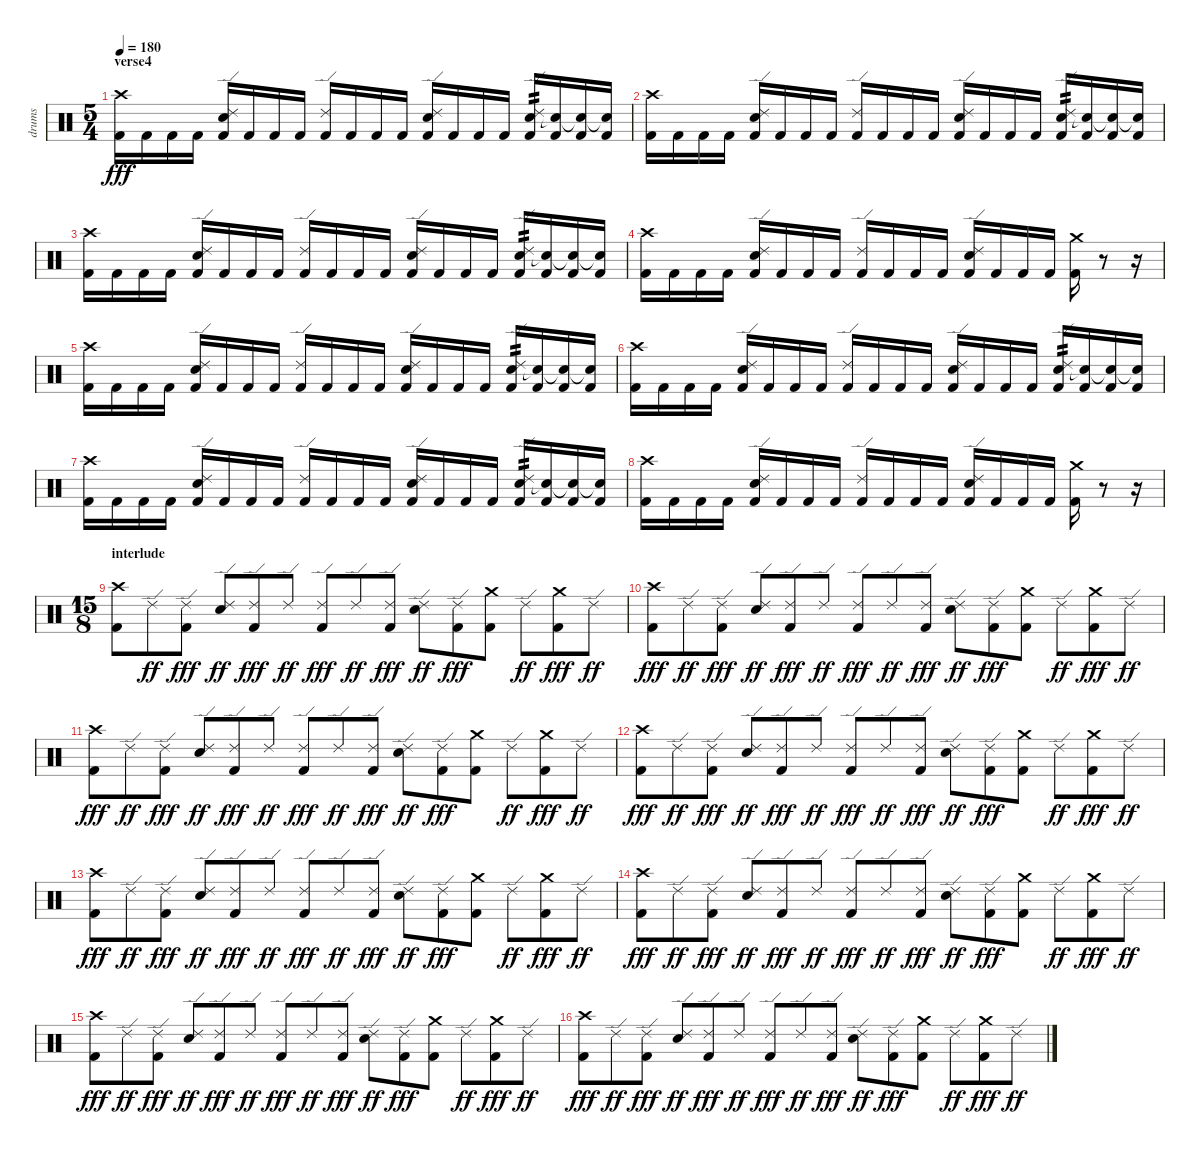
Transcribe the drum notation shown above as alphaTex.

\track ("drums" "drums") {instrument percussion}
\staff {score}
\articulation defaults
\ts (5 4)
\section ("" "verse4")
\tempo 180
\clef neutral
\ks c
("Crash high (hit)" "Kick (hit) 2").16{dy fff} "Kick (hit) 2".16 "Kick (hit) 2".16 "Kick (hit) 2".16 ("Ride (edge) 2" "Snare (hit) 2" "Kick (hit) 2").16 "Kick (hit) 2".16 "Kick (hit) 2".16 "Kick (hit) 2".16 ("Ride (edge) 2" "Kick (hit) 2").16 "Kick (hit) 2".16 "Kick (hit) 2".16 "Kick (hit) 2".16 ("Ride (edge) 2" "Snare (hit) 2" "Kick (hit) 2").16 "Kick (hit) 2".16 "Kick (hit) 2".16 "Kick (hit) 2".16 ("Ride (edge) 2" "Snare (hit) 2" "Kick (hit) 2").16{tp 2} ("Snare (hit)"{t} "Kick (hit) 2").16 ("Snare (hit)"{t} "Kick (hit) 2").16 ("Snare (hit)"{t} "Kick (hit) 2").16 |
("Crash high (hit)" "Kick (hit) 2").16 "Kick (hit) 2".16 "Kick (hit) 2".16 "Kick (hit) 2".16 ("Ride (edge) 2" "Snare (hit) 2" "Kick (hit) 2").16 "Kick (hit) 2".16 "Kick (hit) 2".16 "Kick (hit) 2".16 ("Ride (edge) 2" "Kick (hit) 2").16 "Kick (hit) 2".16 "Kick (hit) 2".16 "Kick (hit) 2".16 ("Ride (edge) 2" "Snare (hit) 2" "Kick (hit) 2").16 "Kick (hit) 2".16 "Kick (hit) 2".16 "Kick (hit) 2".16 ("Ride (edge) 2" "Snare (hit) 2" "Kick (hit) 2").16{tp 2} ("Snare (hit)"{t} "Kick (hit) 2").16 ("Snare (hit)"{t} "Kick (hit) 2").16 ("Snare (hit)"{t} "Kick (hit) 2").16 |
("Crash high (hit)" "Kick (hit) 2").16 "Kick (hit) 2".16 "Kick (hit) 2".16 "Kick (hit) 2".16 ("Ride (edge) 2" "Snare (hit) 2" "Kick (hit) 2").16 "Kick (hit) 2".16 "Kick (hit) 2".16 "Kick (hit) 2".16 ("Ride (edge) 2" "Kick (hit) 2").16 "Kick (hit) 2".16 "Kick (hit) 2".16 "Kick (hit) 2".16 ("Ride (edge) 2" "Snare (hit) 2" "Kick (hit) 2").16 "Kick (hit) 2".16 "Kick (hit) 2".16 "Kick (hit) 2".16 ("Ride (edge) 2" "Snare (hit) 2" "Kick (hit) 2").16{tp 2} ("Snare (hit)"{t} "Kick (hit) 2").16 ("Snare (hit)"{t} "Kick (hit) 2").16 ("Snare (hit)"{t} "Kick (hit) 2").16 |
("Crash high (hit)" "Kick (hit) 2").16 "Kick (hit) 2".16 "Kick (hit) 2".16 "Kick (hit) 2".16 ("Ride (edge) 2" "Snare (hit) 2" "Kick (hit) 2").16 "Kick (hit) 2".16 "Kick (hit) 2".16 "Kick (hit) 2".16 ("Ride (edge) 2" "Kick (hit) 2").16 "Kick (hit) 2".16 "Kick (hit) 2".16 "Kick (hit) 2".16 ("Ride (edge) 2" "Snare (hit) 2" "Kick (hit) 2").16 "Kick (hit) 2".16 "Kick (hit) 2".16 "Kick (hit) 2".16 ("Crash medium (hit)" "Kick (hit) 2").16 r.8 r.16 |
("Crash high (hit)" "Kick (hit) 2").16 "Kick (hit) 2".16 "Kick (hit) 2".16 "Kick (hit) 2".16 ("Ride (edge) 2" "Snare (hit) 2" "Kick (hit) 2").16 "Kick (hit) 2".16 "Kick (hit) 2".16 "Kick (hit) 2".16 ("Ride (edge) 2" "Kick (hit) 2").16 "Kick (hit) 2".16 "Kick (hit) 2".16 "Kick (hit) 2".16 ("Ride (edge) 2" "Snare (hit) 2" "Kick (hit) 2").16 "Kick (hit) 2".16 "Kick (hit) 2".16 "Kick (hit) 2".16 ("Ride (edge) 2" "Snare (hit) 2" "Kick (hit) 2").16{tp 2} ("Snare (hit)"{t} "Kick (hit) 2").16 ("Snare (hit)"{t} "Kick (hit) 2").16 ("Snare (hit)"{t} "Kick (hit) 2").16 |
("Crash high (hit)" "Kick (hit) 2").16 "Kick (hit) 2".16 "Kick (hit) 2".16 "Kick (hit) 2".16 ("Ride (edge) 2" "Snare (hit) 2" "Kick (hit) 2").16 "Kick (hit) 2".16 "Kick (hit) 2".16 "Kick (hit) 2".16 ("Ride (edge) 2" "Kick (hit) 2").16 "Kick (hit) 2".16 "Kick (hit) 2".16 "Kick (hit) 2".16 ("Ride (edge) 2" "Snare (hit) 2" "Kick (hit) 2").16 "Kick (hit) 2".16 "Kick (hit) 2".16 "Kick (hit) 2".16 ("Ride (edge) 2" "Snare (hit) 2" "Kick (hit) 2").16{tp 2} ("Snare (hit)"{t} "Kick (hit) 2").16 ("Snare (hit)"{t} "Kick (hit) 2").16 ("Snare (hit)"{t} "Kick (hit) 2").16 |
("Crash high (hit)" "Kick (hit) 2").16 "Kick (hit) 2".16 "Kick (hit) 2".16 "Kick (hit) 2".16 ("Ride (edge) 2" "Snare (hit) 2" "Kick (hit) 2").16 "Kick (hit) 2".16 "Kick (hit) 2".16 "Kick (hit) 2".16 ("Ride (edge) 2" "Kick (hit) 2").16 "Kick (hit) 2".16 "Kick (hit) 2".16 "Kick (hit) 2".16 ("Ride (edge) 2" "Snare (hit) 2" "Kick (hit) 2").16 "Kick (hit) 2".16 "Kick (hit) 2".16 "Kick (hit) 2".16 ("Ride (edge) 2" "Snare (hit) 2" "Kick (hit) 2").16{tp 2} ("Snare (hit)"{t} "Kick (hit) 2").16 ("Snare (hit)"{t} "Kick (hit) 2").16 ("Snare (hit)"{t} "Kick (hit) 2").16 |
("Crash high (hit)" "Kick (hit) 2").16 "Kick (hit) 2".16 "Kick (hit) 2".16 "Kick (hit) 2".16 ("Ride (edge) 2" "Snare (hit) 2" "Kick (hit) 2").16 "Kick (hit) 2".16 "Kick (hit) 2".16 "Kick (hit) 2".16 ("Ride (edge) 2" "Kick (hit) 2").16 "Kick (hit) 2".16 "Kick (hit) 2".16 "Kick (hit) 2".16 ("Ride (edge) 2" "Snare (hit) 2" "Kick (hit) 2").16 "Kick (hit) 2".16 "Kick (hit) 2".16 "Kick (hit) 2".16 ("Crash medium (hit)" "Kick (hit) 2").16 r.8 r.16 |
\ts (15 8)
\section ("" "interlude")
("Crash high (hit)" "Kick (hit) 2").8 "Ride (edge) 2".8{dy ff} ("Ride (edge) 2" "Kick (hit) 2").8{dy fff} ("Ride (edge) 2" "Snare (hit) 2").8{dy ff} ("Ride (edge) 2" "Kick (hit) 2").8{dy fff} "Ride (edge) 2".8{dy ff} ("Ride (edge) 2" "Kick (hit) 2").8{dy fff} "Ride (edge) 2".8{dy ff} ("Ride (edge) 2" "Kick (hit) 2").8{dy fff} ("Ride (edge) 2" "Snare (hit) 2").8{dy ff} ("Ride (edge) 2" "Kick (hit) 2").8{dy fff} ("Crash medium (hit)" "Kick (hit) 2").8 "Ride (edge) 2".8{dy ff} ("Crash medium (hit)" "Kick (hit) 2").8{dy fff} "Ride (edge) 2".8{dy ff} |
("Crash high (hit)" "Kick (hit) 2").8{dy fff} "Ride (edge) 2".8{dy ff} ("Ride (edge) 2" "Kick (hit) 2").8{dy fff} ("Ride (edge) 2" "Snare (hit) 2").8{dy ff} ("Ride (edge) 2" "Kick (hit) 2").8{dy fff} "Ride (edge) 2".8{dy ff} ("Ride (edge) 2" "Kick (hit) 2").8{dy fff} "Ride (edge) 2".8{dy ff} ("Ride (edge) 2" "Kick (hit) 2").8{dy fff} ("Ride (edge) 2" "Snare (hit) 2").8{dy ff} ("Ride (edge) 2" "Kick (hit) 2").8{dy fff} ("Crash medium (hit)" "Kick (hit) 2").8 "Ride (edge) 2".8{dy ff} ("Crash medium (hit)" "Kick (hit) 2").8{dy fff} "Ride (edge) 2".8{dy ff} |
("Crash high (hit)" "Kick (hit) 2").8{dy fff} "Ride (edge) 2".8{dy ff} ("Ride (edge) 2" "Kick (hit) 2").8{dy fff} ("Ride (edge) 2" "Snare (hit) 2").8{dy ff} ("Ride (edge) 2" "Kick (hit) 2").8{dy fff} "Ride (edge) 2".8{dy ff} ("Ride (edge) 2" "Kick (hit) 2").8{dy fff} "Ride (edge) 2".8{dy ff} ("Ride (edge) 2" "Kick (hit) 2").8{dy fff} ("Ride (edge) 2" "Snare (hit) 2").8{dy ff} ("Ride (edge) 2" "Kick (hit) 2").8{dy fff} ("Crash medium (hit)" "Kick (hit) 2").8 "Ride (edge) 2".8{dy ff} ("Crash medium (hit)" "Kick (hit) 2").8{dy fff} "Ride (edge) 2".8{dy ff} |
("Crash high (hit)" "Kick (hit) 2").8{dy fff} "Ride (edge) 2".8{dy ff} ("Ride (edge) 2" "Kick (hit) 2").8{dy fff} ("Ride (edge) 2" "Snare (hit) 2").8{dy ff} ("Ride (edge) 2" "Kick (hit) 2").8{dy fff} "Ride (edge) 2".8{dy ff} ("Ride (edge) 2" "Kick (hit) 2").8{dy fff} "Ride (edge) 2".8{dy ff} ("Ride (edge) 2" "Kick (hit) 2").8{dy fff} ("Ride (edge) 2" "Snare (hit) 2").8{dy ff} ("Ride (edge) 2" "Kick (hit) 2").8{dy fff} ("Crash medium (hit)" "Kick (hit) 2").8 "Ride (edge) 2".8{dy ff} ("Crash medium (hit)" "Kick (hit) 2").8{dy fff} "Ride (edge) 2".8{dy ff} |
("Crash high (hit)" "Kick (hit) 2").8{dy fff} "Ride (edge) 2".8{dy ff} ("Ride (edge) 2" "Kick (hit) 2").8{dy fff} ("Ride (edge) 2" "Snare (hit) 2").8{dy ff} ("Ride (edge) 2" "Kick (hit) 2").8{dy fff} "Ride (edge) 2".8{dy ff} ("Ride (edge) 2" "Kick (hit) 2").8{dy fff} "Ride (edge) 2".8{dy ff} ("Ride (edge) 2" "Kick (hit) 2").8{dy fff} ("Ride (edge) 2" "Snare (hit) 2").8{dy ff} ("Ride (edge) 2" "Kick (hit) 2").8{dy fff} ("Crash medium (hit)" "Kick (hit) 2").8 "Ride (edge) 2".8{dy ff} ("Crash medium (hit)" "Kick (hit) 2").8{dy fff} "Ride (edge) 2".8{dy ff} |
("Crash high (hit)" "Kick (hit) 2").8{dy fff} "Ride (edge) 2".8{dy ff} ("Ride (edge) 2" "Kick (hit) 2").8{dy fff} ("Ride (edge) 2" "Snare (hit) 2").8{dy ff} ("Ride (edge) 2" "Kick (hit) 2").8{dy fff} "Ride (edge) 2".8{dy ff} ("Ride (edge) 2" "Kick (hit) 2").8{dy fff} "Ride (edge) 2".8{dy ff} ("Ride (edge) 2" "Kick (hit) 2").8{dy fff} ("Ride (edge) 2" "Snare (hit) 2").8{dy ff} ("Ride (edge) 2" "Kick (hit) 2").8{dy fff} ("Crash medium (hit)" "Kick (hit) 2").8 "Ride (edge) 2".8{dy ff} ("Crash medium (hit)" "Kick (hit) 2").8{dy fff} "Ride (edge) 2".8{dy ff} |
("Crash high (hit)" "Kick (hit) 2").8{dy fff} "Ride (edge) 2".8{dy ff} ("Ride (edge) 2" "Kick (hit) 2").8{dy fff} ("Ride (edge) 2" "Snare (hit) 2").8{dy ff} ("Ride (edge) 2" "Kick (hit) 2").8{dy fff} "Ride (edge) 2".8{dy ff} ("Ride (edge) 2" "Kick (hit) 2").8{dy fff} "Ride (edge) 2".8{dy ff} ("Ride (edge) 2" "Kick (hit) 2").8{dy fff} ("Ride (edge) 2" "Snare (hit) 2").8{dy ff} ("Ride (edge) 2" "Kick (hit) 2").8{dy fff} ("Crash medium (hit)" "Kick (hit) 2").8 "Ride (edge) 2".8{dy ff} ("Crash medium (hit)" "Kick (hit) 2").8{dy fff} "Ride (edge) 2".8{dy ff} |
("Crash high (hit)" "Kick (hit) 2").8{dy fff} "Ride (edge) 2".8{dy ff} ("Ride (edge) 2" "Kick (hit) 2").8{dy fff} ("Ride (edge) 2" "Snare (hit) 2").8{dy ff} ("Ride (edge) 2" "Kick (hit) 2").8{dy fff} "Ride (edge) 2".8{dy ff} ("Ride (edge) 2" "Kick (hit) 2").8{dy fff} "Ride (edge) 2".8{dy ff} ("Ride (edge) 2" "Kick (hit) 2").8{dy fff} ("Ride (edge) 2" "Snare (hit) 2").8{dy ff} ("Ride (edge) 2" "Kick (hit) 2").8{dy fff} ("Crash medium (hit)" "Kick (hit) 2").8 "Ride (edge) 2".8{dy ff} ("Crash medium (hit)" "Kick (hit) 2").8{dy fff} "Ride (edge) 2".8{dy ff}
